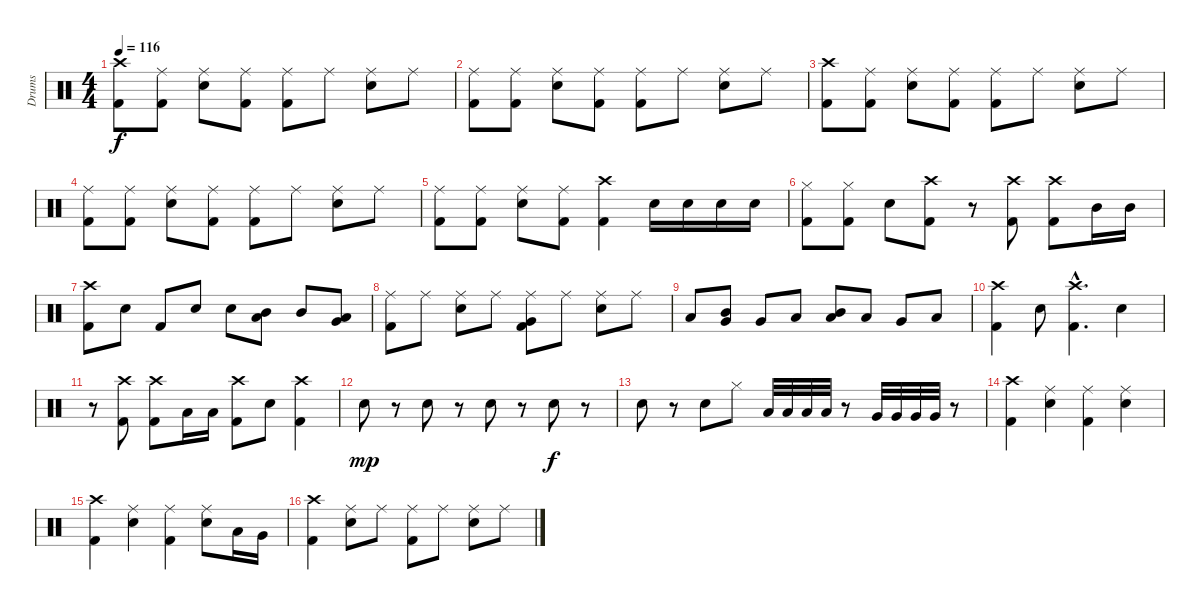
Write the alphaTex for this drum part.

\track ("Drums" "Drums") {instrument percussion}
\staff {score}
\articulation defaults
\ts (4 4)
\tempo 116
\clef neutral
\ks c
("Crash high (hit)" "Kick (hit) 2").8{dy f} ("Ride (middle)" "Kick (hit) 2").8 ("Ride (middle)" "Snare (hit) 2").8 ("Ride (middle)" "Kick (hit) 2").8 ("Ride (middle)" "Kick (hit) 2").8 "Ride (middle)".8 ("Ride (middle)" "Snare (hit) 2").8 "Ride (middle)".8 |
("Ride (middle)" "Kick (hit) 2").8 ("Ride (middle)" "Kick (hit) 2").8 ("Ride (middle)" "Snare (hit) 2").8 ("Ride (middle)" "Kick (hit) 2").8 ("Ride (middle)" "Kick (hit) 2").8 "Ride (middle)".8 ("Ride (middle)" "Snare (hit) 2").8 "Ride (middle)".8 |
("Crash high (hit)" "Kick (hit) 2").8 ("Ride (middle)" "Kick (hit) 2").8 ("Ride (middle)" "Snare (hit) 2").8 ("Ride (middle)" "Kick (hit) 2").8 ("Ride (middle)" "Kick (hit) 2").8 "Ride (middle)".8 ("Ride (middle)" "Snare (hit) 2").8 "Ride (middle)".8 |
("Ride (middle)" "Kick (hit) 2").8 ("Ride (middle)" "Kick (hit) 2").8 ("Ride (middle)" "Snare (hit) 2").8 ("Ride (middle)" "Kick (hit) 2").8 ("Ride (middle)" "Kick (hit) 2").8 "Ride (middle)".8 ("Ride (middle)" "Snare (hit) 2").8 "Ride (middle)".8 |
("Ride (middle)" "Kick (hit) 2").8 ("Ride (middle)" "Kick (hit) 2").8 ("Ride (middle)" "Snare (hit) 2").8 ("Ride (middle)" "Kick (hit) 2").8 ("Crash high (hit)" "Kick (hit) 2").4 "Snare (hit) 2".16 "Snare (hit) 2".16 "Snare (hit) 2".16 "Snare (hit) 2".16 |
("Hi-Hat (closed)" "Kick (hit) 2").8 ("Hi-Hat (closed)" "Kick (hit) 2").8 "Snare (hit) 2".8 ("Crash high (hit)" "Kick (hit) 2").8 r.8 ("Crash high (hit)" "Kick (hit) 2").8 ("Crash high (hit)" "Kick (hit) 2").8 "Mid Tom (hit)".16 "Mid Tom (hit)".16 |
("Crash high (hit)" "Kick (hit) 2").8 "Snare (hit) 2".8 "Kick (hit) 2".8 "Snare (hit) 2".8 "Snare (hit) 2".8 ("Low Tom (hit)" "Mid Tom (hit)").8 "Mid Tom (hit)".8 ("Low Tom (hit)" "Very Low Tom (hit)").8 |
("Ride (middle)" "Kick (hit) 2").8 "Ride (middle)".8 ("Ride (middle)" "Snare (hit) 2").8 "Ride (middle)".8 ("Ride (middle)" "Very Low Tom (hit)" "Kick (hit) 2").8 "Ride (middle)".8 ("Ride (middle)" "Snare (hit) 2").8 "Ride (middle)".8 |
"Low Tom (hit)".8 ("Mid Tom (hit)" "Very Low Tom (hit)").8 "Very Low Tom (hit)".8 "Low Tom (hit)".8 ("Mid Tom (hit)" "Low Tom (hit)").8 "Low Tom (hit)".8 "Very Low Tom (hit)".8 "Low Tom (hit)".8 |
("Crash high (hit)" "Kick (hit) 2").4 "Snare (hit) 2".8 ("Crash high (hit)"{hac} "Kick (hit) 2"{hac}).4{d} "Snare (hit) 2".4 |
r.8 ("Crash high (hit)" "Kick (hit) 2").8 ("Crash high (hit)" "Kick (hit) 2").8 "Low Tom (hit)".16 "Low Tom (hit)".16 ("Crash high (hit)" "Kick (hit) 2").8 "Snare (hit) 2".8 ("Crash high (hit)" "Kick (hit) 2").4 |
"Snare (hit) 2".8{dy mp} r.8 "Snare (hit) 2".8 r.8 "Snare (hit) 2".8 r.8 "Snare (hit) 2".8{dy f} r.8 |
"Snare (hit) 2".8 r.8 "Snare (hit) 2".8 "Hi-Hat (closed)".8 "Low Tom (hit)".32 "Low Tom (hit)".32 "Low Tom (hit)".32 "Low Tom (hit)".32 r.8 "Very Low Tom (hit)".32 "Very Low Tom (hit)".32 "Very Low Tom (hit)".32 "Very Low Tom (hit)".32 r.8 |
("Crash high (hit)" "Kick (hit) 2").4 ("Ride (middle)" "Snare (hit) 2").4 ("Ride (middle)" "Kick (hit) 2").4 ("Ride (middle)" "Snare (hit) 2").4 |
("Crash high (hit)" "Kick (hit) 2").4 ("Ride (middle)" "Snare (hit) 2").4 ("Ride (middle)" "Kick (hit) 2").4 ("Ride (middle)" "Snare (hit) 2").8 "Low Tom (hit)".16 "Very Low Tom (hit)".16 |
("Crash high (hit)" "Kick (hit) 2").4 ("Ride (middle)" "Snare (hit) 2").8 "Ride (middle)".8 ("Ride (middle)" "Kick (hit) 2").8 "Ride (middle)".8 ("Ride (middle)" "Snare (hit) 2").8 "Ride (middle)".8
